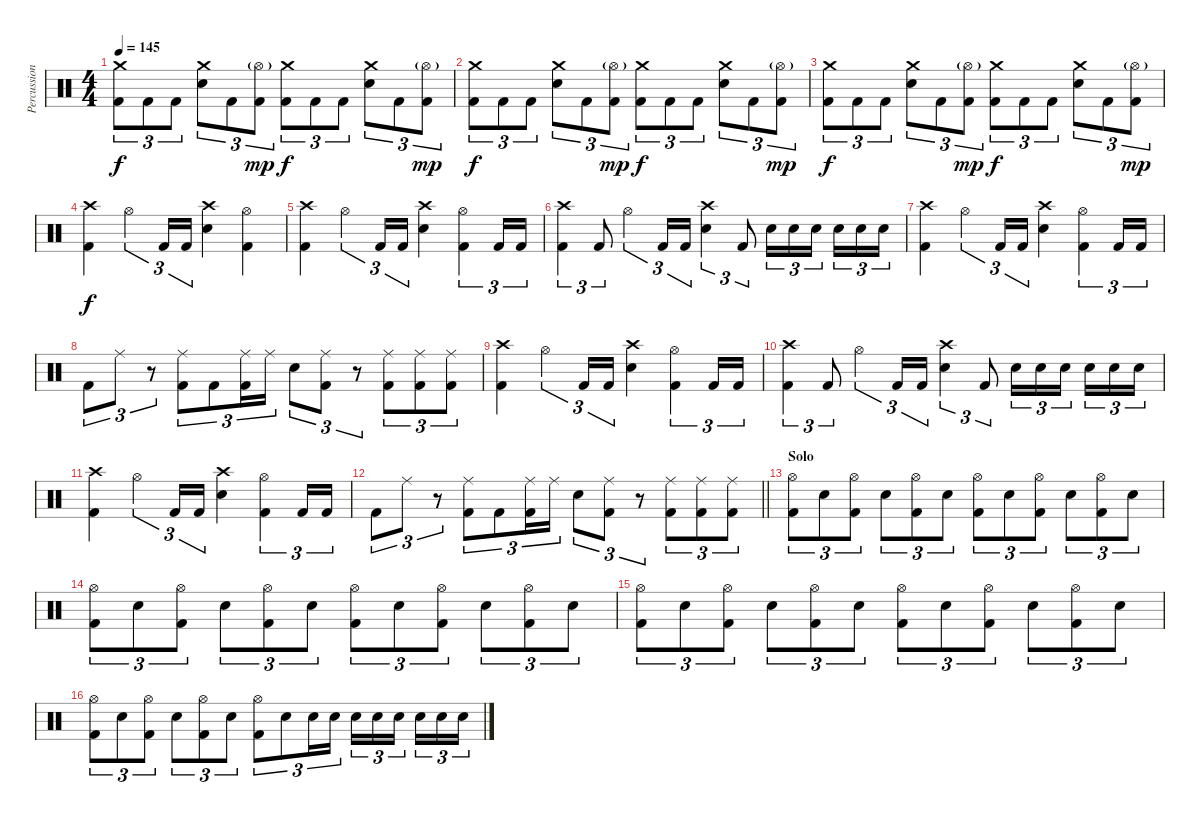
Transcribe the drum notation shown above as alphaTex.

\track ("Percussion" "Percussion") {instrument percussion}
\staff {score}
\articulation defaults
\ts (4 4)
\tempo 145
\clef neutral
\ks c
("Crash medium (hit)" "Kick (hit) 2").8{tu (3 2) dy f} "Kick (hit) 2".8{tu (3 2)} "Kick (hit) 2".8{tu (3 2)} ("Crash medium (hit)" "Electric Snare (hit)").8{tu (3 2)} "Kick (hit) 2".8{tu (3 2)} ("Hi-Hat (open)"{g} "Kick (hit) 2").8{tu (3 2) dy mp} ("Crash medium (hit)" "Kick (hit) 2").8{tu (3 2) dy f} "Kick (hit) 2".8{tu (3 2)} "Kick (hit) 2".8{tu (3 2)} ("Crash medium (hit)" "Electric Snare (hit)").8{tu (3 2)} "Kick (hit) 2".8{tu (3 2)} ("Hi-Hat (open)"{g} "Kick (hit) 2").8{tu (3 2) dy mp} |
("Crash medium (hit)" "Kick (hit) 2").8{tu (3 2) dy f} "Kick (hit) 2".8{tu (3 2)} "Kick (hit) 2".8{tu (3 2)} ("Crash medium (hit)" "Electric Snare (hit)").8{tu (3 2)} "Kick (hit) 2".8{tu (3 2)} ("Hi-Hat (open)"{g} "Kick (hit) 2").8{tu (3 2) dy mp} ("Crash medium (hit)" "Kick (hit) 2").8{tu (3 2) dy f} "Kick (hit) 2".8{tu (3 2)} "Kick (hit) 2".8{tu (3 2)} ("Crash medium (hit)" "Electric Snare (hit)").8{tu (3 2)} "Kick (hit) 2".8{tu (3 2)} ("Hi-Hat (open)"{g} "Kick (hit) 2").8{tu (3 2) dy mp} |
("Crash medium (hit)" "Kick (hit) 2").8{tu (3 2) dy f} "Kick (hit) 2".8{tu (3 2)} "Kick (hit) 2".8{tu (3 2)} ("Crash medium (hit)" "Electric Snare (hit)").8{tu (3 2)} "Kick (hit) 2".8{tu (3 2)} ("Hi-Hat (open)"{g} "Kick (hit) 2").8{tu (3 2) dy mp} ("Crash medium (hit)" "Kick (hit) 2").8{tu (3 2) dy f} "Kick (hit) 2".8{tu (3 2)} "Kick (hit) 2".8{tu (3 2)} ("Crash medium (hit)" "Electric Snare (hit)").8{tu (3 2)} "Kick (hit) 2".8{tu (3 2)} ("Hi-Hat (open)"{g} "Kick (hit) 2").8{tu (3 2) dy mp} |
("Crash high (hit)" "Kick (hit) 2").4{dy f} "Hi-Hat (open)".4{tu (3 2)} "Kick (hit) 2".16{tu (3 2)} "Kick (hit) 2".16{tu (3 2)} ("Crash high (hit)" "Electric Snare (hit)").4 ("Hi-Hat (open)" "Kick (hit) 2").4 |
("Crash high (hit)" "Kick (hit) 2").4 "Hi-Hat (open)".4{tu (3 2)} "Kick (hit) 2".16{tu (3 2)} "Kick (hit) 2".16{tu (3 2)} ("Crash high (hit)" "Electric Snare (hit)").4 ("Hi-Hat (open)" "Kick (hit) 2").4{tu (3 2)} "Kick (hit) 2".16{tu (3 2)} "Kick (hit) 2".16{tu (3 2)} |
("Crash high (hit)" "Kick (hit) 2").4{tu (3 2)} "Kick (hit) 2".8{tu (3 2)} "Hi-Hat (open)".4{tu (3 2)} "Kick (hit) 2".16{tu (3 2)} "Kick (hit) 2".16{tu (3 2)} ("Crash high (hit)" "Electric Snare (hit)").4{tu (3 2)} "Kick (hit) 2".8{tu (3 2)} "Electric Snare (hit)".16{tu (3 2)} "Electric Snare (hit)".16{tu (3 2)} "Electric Snare (hit)".16{tu (3 2)} "Electric Snare (hit)".16{tu (3 2)} "Electric Snare (hit)".16{tu (3 2)} "Electric Snare (hit)".16{tu (3 2)} |
("Crash high (hit)" "Kick (hit) 2").4 "Hi-Hat (open)".4{tu (3 2)} "Kick (hit) 2".16{tu (3 2)} "Kick (hit) 2".16{tu (3 2)} ("Crash high (hit)" "Electric Snare (hit)").4 ("Hi-Hat (open)" "Kick (hit) 2").4{tu (3 2)} "Kick (hit) 2".16{tu (3 2)} "Kick (hit) 2".16{tu (3 2)} |
"Kick (hit) 2".8{tu (3 2)} "Ride (middle)".8{tu (3 2)} r.8{tu (3 2)} ("Ride (middle)" "Kick (hit) 2").8{tu (3 2)} "Kick (hit) 2".8{tu (3 2)} ("Ride (middle)" "Kick (hit) 2").16{tu (3 2)} "Ride (middle)".16{tu (3 2)} "Electric Snare (hit)".8{tu (3 2)} ("Ride (middle)" "Kick (hit) 2").8{tu (3 2)} r.8{tu (3 2)} ("Ride (middle)" "Kick (hit) 2").8{tu (3 2)} ("Ride (middle)" "Kick (hit) 2").8{tu (3 2)} ("Ride (middle)" "Kick (hit) 2").8{tu (3 2)} |
("Crash high (hit)" "Kick (hit) 2").4 "Hi-Hat (open)".4{tu (3 2)} "Kick (hit) 2".16{tu (3 2)} "Kick (hit) 2".16{tu (3 2)} ("Crash high (hit)" "Electric Snare (hit)").4 ("Hi-Hat (open)" "Kick (hit) 2").4{tu (3 2)} "Kick (hit) 2".16{tu (3 2)} "Kick (hit) 2".16{tu (3 2)} |
("Crash high (hit)" "Kick (hit) 2").4{tu (3 2)} "Kick (hit) 2".8{tu (3 2)} "Hi-Hat (open)".4{tu (3 2)} "Kick (hit) 2".16{tu (3 2)} "Kick (hit) 2".16{tu (3 2)} ("Crash high (hit)" "Electric Snare (hit)").4{tu (3 2)} "Kick (hit) 2".8{tu (3 2)} "Electric Snare (hit)".16{tu (3 2)} "Electric Snare (hit)".16{tu (3 2)} "Electric Snare (hit)".16{tu (3 2)} "Electric Snare (hit)".16{tu (3 2)} "Electric Snare (hit)".16{tu (3 2)} "Electric Snare (hit)".16{tu (3 2)} |
("Crash high (hit)" "Kick (hit) 2").4 "Hi-Hat (open)".4{tu (3 2)} "Kick (hit) 2".16{tu (3 2)} "Kick (hit) 2".16{tu (3 2)} ("Crash high (hit)" "Electric Snare (hit)").4 ("Hi-Hat (open)" "Kick (hit) 2").4{tu (3 2)} "Kick (hit) 2".16{tu (3 2)} "Kick (hit) 2".16{tu (3 2)} |
\barLineRight lightlight "Kick (hit) 2".8{tu (3 2)} "Ride (middle)".8{tu (3 2)}
r.8{tu (3 2)} ("Ride (middle)" "Kick (hit) 2").8{tu (3 2)} "Kick (hit) 2".8{tu (3 2)} ("Ride (middle)" "Kick (hit) 2").16{tu (3 2)} "Ride (middle)".16{tu (3 2)} "Electric Snare (hit)".8{tu (3 2)} ("Ride (middle)" "Kick (hit) 2").8{tu (3 2)} r.8{tu (3 2)} ("Ride (middle)" "Kick (hit) 2").8{tu (3 2)} ("Ride (middle)" "Kick (hit) 2").8{tu (3 2)} ("Ride (middle)" "Kick (hit) 2").8{tu (3 2)} |
\section ("" "Solo")
("Hi-Hat (open)" "Kick (hit) 2").8{tu (3 2)} "Electric Snare (hit)".8{tu (3 2)} ("Hi-Hat (open)" "Kick (hit) 2").8{tu (3 2)} "Electric Snare (hit)".8{tu (3 2)} ("Hi-Hat (open)" "Kick (hit) 2").8{tu (3 2)} "Electric Snare (hit)".8{tu (3 2)} ("Hi-Hat (open)" "Kick (hit) 2").8{tu (3 2)} "Electric Snare (hit)".8{tu (3 2)} ("Hi-Hat (open)" "Kick (hit) 2").8{tu (3 2)} "Electric Snare (hit)".8{tu (3 2)} ("Hi-Hat (open)" "Kick (hit) 2").8{tu (3 2)} "Electric Snare (hit)".8{tu (3 2)} |
("Hi-Hat (open)" "Kick (hit) 2").8{tu (3 2)} "Electric Snare (hit)".8{tu (3 2)} ("Hi-Hat (open)" "Kick (hit) 2").8{tu (3 2)} "Electric Snare (hit)".8{tu (3 2)} ("Hi-Hat (open)" "Kick (hit) 2").8{tu (3 2)} "Electric Snare (hit)".8{tu (3 2)} ("Hi-Hat (open)" "Kick (hit) 2").8{tu (3 2)} "Electric Snare (hit)".8{tu (3 2)} ("Hi-Hat (open)" "Kick (hit) 2").8{tu (3 2)} "Electric Snare (hit)".8{tu (3 2)} ("Hi-Hat (open)" "Kick (hit) 2").8{tu (3 2)} "Electric Snare (hit)".8{tu (3 2)} |
("Hi-Hat (open)" "Kick (hit) 2").8{tu (3 2)} "Electric Snare (hit)".8{tu (3 2)} ("Hi-Hat (open)" "Kick (hit) 2").8{tu (3 2)} "Electric Snare (hit)".8{tu (3 2)} ("Hi-Hat (open)" "Kick (hit) 2").8{tu (3 2)} "Electric Snare (hit)".8{tu (3 2)} ("Hi-Hat (open)" "Kick (hit) 2").8{tu (3 2)} "Electric Snare (hit)".8{tu (3 2)} ("Hi-Hat (open)" "Kick (hit) 2").8{tu (3 2)} "Electric Snare (hit)".8{tu (3 2)} ("Hi-Hat (open)" "Kick (hit) 2").8{tu (3 2)} "Electric Snare (hit)".8{tu (3 2)} |
("Hi-Hat (open)" "Kick (hit) 2").8{tu (3 2)} "Electric Snare (hit)".8{tu (3 2)} ("Hi-Hat (open)" "Kick (hit) 2").8{tu (3 2)} "Electric Snare (hit)".8{tu (3 2)} ("Hi-Hat (open)" "Kick (hit) 2").8{tu (3 2)} "Electric Snare (hit)".8{tu (3 2)} ("Hi-Hat (open)" "Kick (hit) 2").8{tu (3 2)} "Electric Snare (hit)".8{tu (3 2)} "Electric Snare (hit)".16{tu (3 2)} "Electric Snare (hit)".16{tu (3 2)} "Electric Snare (hit)".16{tu (3 2)} "Electric Snare (hit)".16{tu (3 2)} "Electric Snare (hit)".16{tu (3 2)} "Electric Snare (hit)".16{tu (3 2)} "Electric Snare (hit)".16{tu (3 2)} "Electric Snare (hit)".16{tu (3 2)}
